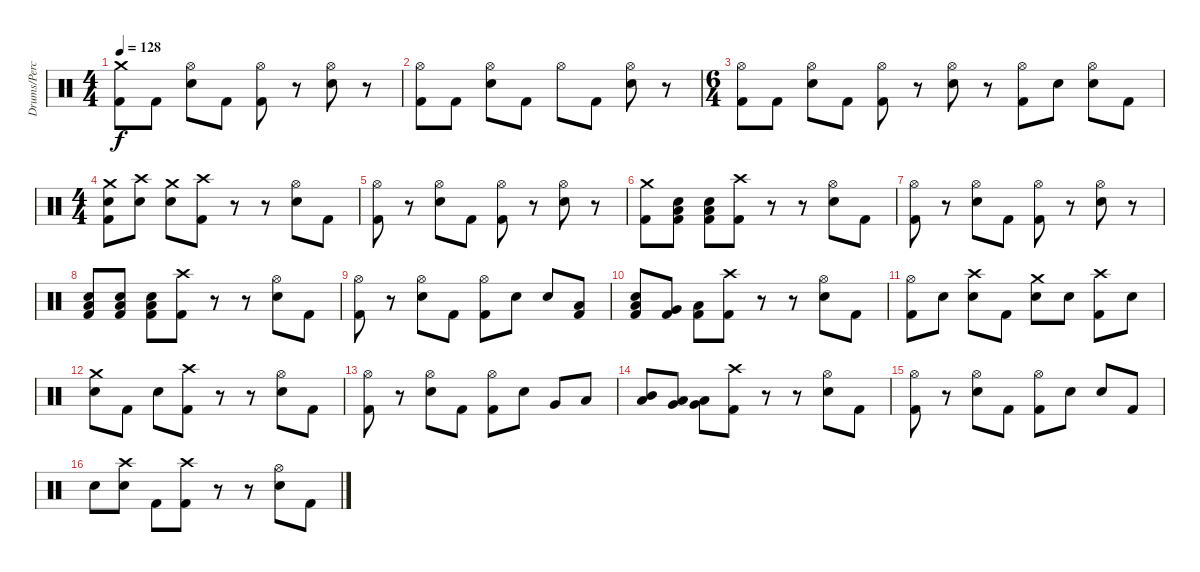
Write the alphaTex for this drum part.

\track ("Drums/Percussion" "Drums/Perc") {instrument percussion}
\staff {score}
\articulation defaults
\ts (4 4)
\tempo 128
\clef neutral
\ks c
("Crash medium (hit)" "Kick (hit) 2").8{dy f} "Kick (hit) 2".8 ("Hi-Hat (open)" "Electric Snare (hit)").8 "Kick (hit) 2".8 ("Hi-Hat (open)" "Kick (hit) 2").8 r.8 ("Hi-Hat (open)" "Electric Snare (hit)").8 r.8 |
("Hi-Hat (open)" "Kick (hit) 2").8 "Kick (hit) 2".8 ("Hi-Hat (open)" "Electric Snare (hit)").8 "Kick (hit) 2".8 "Hi-Hat (open)".8 "Kick (hit) 2".8 ("Hi-Hat (open)" "Electric Snare (hit)").8 r.8 |
\ts (6 4)
("Hi-Hat (open)" "Kick (hit) 2").8 "Kick (hit) 2".8 ("Hi-Hat (open)" "Electric Snare (hit)").8 "Kick (hit) 2".8 ("Hi-Hat (open)" "Kick (hit) 2").8 r.8 ("Hi-Hat (open)" "Electric Snare (hit)").8 r.8 ("Hi-Hat (open)" "Kick (hit) 2").8 "Electric Snare (hit)".8 ("Hi-Hat (open)" "Electric Snare (hit)").8 "Kick (hit) 2".8 |
\ts (4 4)
("Crash medium (hit)" "Electric Snare (hit)" "Kick (hit) 2").8 ("Crash high (hit)" "Electric Snare (hit)").8 ("Crash medium (hit)" "Electric Snare (hit)").8 ("Crash high (hit)" "Kick (hit) 2").8 r.8 r.8 ("Hi-Hat (open)" "Electric Snare (hit)").8 "Kick (hit) 2".8 |
("Hi-Hat (open)" "Kick (hit) 2").8 r.8 ("Hi-Hat (open)" "Electric Snare (hit)").8 "Kick (hit) 2".8 ("Hi-Hat (open)" "Kick (hit) 2").8 r.8 ("Hi-Hat (open)" "Electric Snare (hit)").8 r.8 |
("Crash medium (hit)" "Kick (hit) 2").8 ("Electric Snare (hit)" "Low Floor Tom (hit)" "Kick (hit) 2").8 ("Electric Snare (hit)" "Low Floor Tom (hit)" "Kick (hit) 2").8 ("Crash high (hit)" "Kick (hit) 2").8 r.8 r.8 ("Hi-Hat (open)" "Electric Snare (hit)").8 "Kick (hit) 2".8 |
("Hi-Hat (open)" "Kick (hit) 2").8 r.8 ("Hi-Hat (open)" "Electric Snare (hit)").8 "Kick (hit) 2".8 ("Hi-Hat (open)" "Kick (hit) 2").8 r.8 ("Hi-Hat (open)" "Electric Snare (hit)").8 r.8 |
("Electric Snare (hit)" "Low Floor Tom (hit)" "Kick (hit) 2").8 ("Electric Snare (hit)" "Low Floor Tom (hit)" "Kick (hit) 2").8 ("Electric Snare (hit)" "Low Floor Tom (hit)" "Kick (hit) 2").8 ("Crash high (hit)" "Kick (hit) 2").8 r.8 r.8 ("Hi-Hat (open)" "Electric Snare (hit)").8 "Kick (hit) 2".8 |
("Hi-Hat (open)" "Kick (hit) 2").8 r.8 ("Hi-Hat (open)" "Electric Snare (hit)").8 "Kick (hit) 2".8 ("Hi-Hat (open)" "Kick (hit) 2").8 "Electric Snare (hit)".8 "Electric Snare (hit)".8 ("Low Floor Tom (hit)" "Kick (hit) 2").8 |
("Electric Snare (hit)" "Low Tom (hit)" "Kick (hit) 2").8 ("Very Low Tom (hit)" "Kick (hit) 2").8 ("Low Floor Tom (hit)" "Kick (hit) 2").8 ("Crash high (hit)" "Kick (hit) 2").8 r.8 r.8 ("Hi-Hat (open)" "Electric Snare (hit)").8 "Kick (hit) 2".8 |
("Hi-Hat (open)" "Kick (hit) 2").8 "Electric Snare (hit)".8 ("Crash high (hit)" "Electric Snare (hit)").8 "Kick (hit) 2".8 ("Crash medium (hit)" "Electric Snare (hit)").8 "Electric Snare (hit)".8 ("Crash high (hit)" "Kick (hit) 2").8 "Electric Snare (hit)".8 |
("Crash medium (hit)" "Electric Snare (hit)").8 "Kick (hit) 2".8 "Electric Snare (hit)".8 ("Crash high (hit)" "Kick (hit) 2").8 r.8 r.8 ("Hi-Hat (open)" "Electric Snare (hit)").8 "Kick (hit) 2".8 |
("Hi-Hat (open)" "Kick (hit) 2").8 r.8 ("Hi-Hat (open)" "Electric Snare (hit)").8 "Kick (hit) 2".8 ("Hi-Hat (open)" "Kick (hit) 2").8 "Electric Snare (hit)".8 "Very Low Tom (hit)".8 "Low Floor Tom (hit)".8 |
("Mid Tom (hit)" "Low Tom (hit)").8 ("Low Tom (hit)" "Very Low Tom (hit)").8 ("Very Low Tom (hit)" "Low Floor Tom (hit)").8 ("Crash high (hit)" "Kick (hit) 2").8 r.8 r.8 ("Hi-Hat (open)" "Electric Snare (hit)").8 "Kick (hit) 2".8 |
("Hi-Hat (open)" "Kick (hit) 2").8 r.8 ("Hi-Hat (open)" "Electric Snare (hit)").8 "Kick (hit) 2".8 ("Hi-Hat (open)" "Kick (hit) 2").8 "Electric Snare (hit)".8 "Electric Snare (hit)".8 "Kick (hit) 2".8 |
"Electric Snare (hit)".8 ("Crash high (hit)" "Electric Snare (hit)").8 "Kick (hit) 2".8 ("Crash high (hit)" "Kick (hit) 2").8 r.8 r.8 ("Hi-Hat (open)" "Electric Snare (hit)").8 "Kick (hit) 2".8
